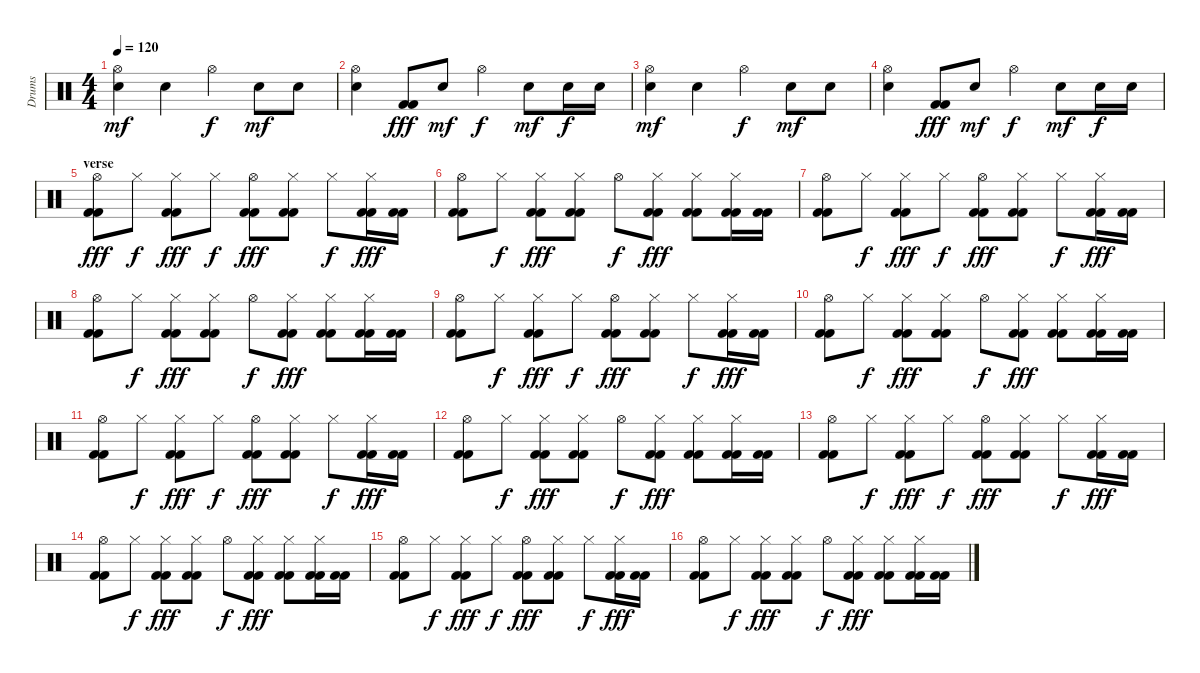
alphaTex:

\track ("Drums" "Drums") {instrument percussion}
\staff {score}
\articulation defaults
\ts (4 4)
\tempo 120
\clef neutral
\ks c
("Electric Snare (hit)" "Hi-Hat (open)").4{dy mf} "Electric Snare (hit)".4 "Hi-Hat (open)".4{dy f} "Electric Snare (hit)".8{dy mf} "Electric Snare (hit)".8 |
("Electric Snare (hit)" "Hi-Hat (open)").4 ("Kick (hit) 2" "Kick (hit) 2").8{dy fff} "Electric Snare (hit)".8{dy mf} "Hi-Hat (open)".4{dy f} "Electric Snare (hit)".8{dy mf} "Electric Snare (hit)".16{dy f} "Electric Snare (hit)".16 |
("Electric Snare (hit)" "Hi-Hat (open)").4{dy mf} "Electric Snare (hit)".4 "Hi-Hat (open)".4{dy f} "Electric Snare (hit)".8{dy mf} "Electric Snare (hit)".8 |
("Electric Snare (hit)" "Hi-Hat (open)").4 ("Kick (hit) 2" "Kick (hit) 2").8{dy fff} "Electric Snare (hit)".8{dy mf} "Hi-Hat (open)".4{dy f} "Electric Snare (hit)".8{dy mf} "Electric Snare (hit)".16{dy f} "Electric Snare (hit)".16 |
\section ("" "verse")
("Hi-Hat (open)" "Kick (hit) 2" "Kick (hit) 2").8{dy fff} "Hi-Hat (closed)".8{dy f} ("Hi-Hat (closed)" "Kick (hit) 2" "Kick (hit) 2").8{dy fff} "Hi-Hat (closed)".8{dy f} ("Hi-Hat (open)" "Kick (hit) 2" "Kick (hit) 2").8{dy fff} ("Hi-Hat (closed)" "Kick (hit) 2" "Kick (hit) 2").8 "Hi-Hat (closed)".8{dy f} ("Hi-Hat (closed)" "Kick (hit) 2" "Kick (hit) 2").16{dy fff} ("Kick (hit) 2" "Kick (hit) 2").16 |
("Hi-Hat (open)" "Kick (hit) 2" "Kick (hit) 2").8 "Hi-Hat (closed)".8{dy f} ("Hi-Hat (closed)" "Kick (hit) 2" "Kick (hit) 2").8{dy fff} ("Hi-Hat (closed)" "Kick (hit) 2" "Kick (hit) 2").8 "Hi-Hat (open)".8{dy f} ("Hi-Hat (closed)" "Kick (hit) 2" "Kick (hit) 2").8{dy fff} ("Hi-Hat (closed)" "Kick (hit) 2" "Kick (hit) 2").8 ("Hi-Hat (closed)" "Kick (hit) 2" "Kick (hit) 2").16 ("Kick (hit) 2" "Kick (hit) 2").16 |
("Hi-Hat (open)" "Kick (hit) 2" "Kick (hit) 2").8 "Hi-Hat (closed)".8{dy f} ("Hi-Hat (closed)" "Kick (hit) 2" "Kick (hit) 2").8{dy fff} "Hi-Hat (closed)".8{dy f} ("Hi-Hat (open)" "Kick (hit) 2" "Kick (hit) 2").8{dy fff} ("Hi-Hat (closed)" "Kick (hit) 2" "Kick (hit) 2").8 "Hi-Hat (closed)".8{dy f} ("Hi-Hat (closed)" "Kick (hit) 2" "Kick (hit) 2").16{dy fff} ("Kick (hit) 2" "Kick (hit) 2").16 |
("Hi-Hat (open)" "Kick (hit) 2" "Kick (hit) 2").8 "Hi-Hat (closed)".8{dy f} ("Hi-Hat (closed)" "Kick (hit) 2" "Kick (hit) 2").8{dy fff} ("Hi-Hat (closed)" "Kick (hit) 2" "Kick (hit) 2").8 "Hi-Hat (open)".8{dy f} ("Hi-Hat (closed)" "Kick (hit) 2" "Kick (hit) 2").8{dy fff} ("Hi-Hat (closed)" "Kick (hit) 2" "Kick (hit) 2").8 ("Hi-Hat (closed)" "Kick (hit) 2" "Kick (hit) 2").16 ("Kick (hit) 2" "Kick (hit) 2").16 |
("Hi-Hat (open)" "Kick (hit) 2" "Kick (hit) 2").8 "Hi-Hat (closed)".8{dy f} ("Hi-Hat (closed)" "Kick (hit) 2" "Kick (hit) 2").8{dy fff} "Hi-Hat (closed)".8{dy f} ("Hi-Hat (open)" "Kick (hit) 2" "Kick (hit) 2").8{dy fff} ("Hi-Hat (closed)" "Kick (hit) 2" "Kick (hit) 2").8 "Hi-Hat (closed)".8{dy f} ("Hi-Hat (closed)" "Kick (hit) 2" "Kick (hit) 2").16{dy fff} ("Kick (hit) 2" "Kick (hit) 2").16 |
("Hi-Hat (open)" "Kick (hit) 2" "Kick (hit) 2").8 "Hi-Hat (closed)".8{dy f} ("Hi-Hat (closed)" "Kick (hit) 2" "Kick (hit) 2").8{dy fff} ("Hi-Hat (closed)" "Kick (hit) 2" "Kick (hit) 2").8 "Hi-Hat (open)".8{dy f} ("Hi-Hat (closed)" "Kick (hit) 2" "Kick (hit) 2").8{dy fff} ("Hi-Hat (closed)" "Kick (hit) 2" "Kick (hit) 2").8 ("Hi-Hat (closed)" "Kick (hit) 2" "Kick (hit) 2").16 ("Kick (hit) 2" "Kick (hit) 2").16 |
("Hi-Hat (open)" "Kick (hit) 2" "Kick (hit) 2").8 "Hi-Hat (closed)".8{dy f} ("Hi-Hat (closed)" "Kick (hit) 2" "Kick (hit) 2").8{dy fff} "Hi-Hat (closed)".8{dy f} ("Hi-Hat (open)" "Kick (hit) 2" "Kick (hit) 2").8{dy fff} ("Hi-Hat (closed)" "Kick (hit) 2" "Kick (hit) 2").8 "Hi-Hat (closed)".8{dy f} ("Hi-Hat (closed)" "Kick (hit) 2" "Kick (hit) 2").16{dy fff} ("Kick (hit) 2" "Kick (hit) 2").16 |
("Hi-Hat (open)" "Kick (hit) 2" "Kick (hit) 2").8 "Hi-Hat (closed)".8{dy f} ("Hi-Hat (closed)" "Kick (hit) 2" "Kick (hit) 2").8{dy fff} ("Hi-Hat (closed)" "Kick (hit) 2" "Kick (hit) 2").8 "Hi-Hat (open)".8{dy f} ("Hi-Hat (closed)" "Kick (hit) 2" "Kick (hit) 2").8{dy fff} ("Hi-Hat (closed)" "Kick (hit) 2" "Kick (hit) 2").8 ("Hi-Hat (closed)" "Kick (hit) 2" "Kick (hit) 2").16 ("Kick (hit) 2" "Kick (hit) 2").16 |
("Hi-Hat (open)" "Kick (hit) 2" "Kick (hit) 2").8 "Hi-Hat (closed)".8{dy f} ("Hi-Hat (closed)" "Kick (hit) 2" "Kick (hit) 2").8{dy fff} "Hi-Hat (closed)".8{dy f} ("Hi-Hat (open)" "Kick (hit) 2" "Kick (hit) 2").8{dy fff} ("Hi-Hat (closed)" "Kick (hit) 2" "Kick (hit) 2").8 "Hi-Hat (closed)".8{dy f} ("Hi-Hat (closed)" "Kick (hit) 2" "Kick (hit) 2").16{dy fff} ("Kick (hit) 2" "Kick (hit) 2").16 |
("Hi-Hat (open)" "Kick (hit) 2" "Kick (hit) 2").8 "Hi-Hat (closed)".8{dy f} ("Hi-Hat (closed)" "Kick (hit) 2" "Kick (hit) 2").8{dy fff} ("Hi-Hat (closed)" "Kick (hit) 2" "Kick (hit) 2").8 "Hi-Hat (open)".8{dy f} ("Hi-Hat (closed)" "Kick (hit) 2" "Kick (hit) 2").8{dy fff} ("Hi-Hat (closed)" "Kick (hit) 2" "Kick (hit) 2").8 ("Hi-Hat (closed)" "Kick (hit) 2" "Kick (hit) 2").16 ("Kick (hit) 2" "Kick (hit) 2").16 |
("Hi-Hat (open)" "Kick (hit) 2" "Kick (hit) 2").8 "Hi-Hat (closed)".8{dy f} ("Hi-Hat (closed)" "Kick (hit) 2" "Kick (hit) 2").8{dy fff} "Hi-Hat (closed)".8{dy f} ("Hi-Hat (open)" "Kick (hit) 2" "Kick (hit) 2").8{dy fff} ("Hi-Hat (closed)" "Kick (hit) 2" "Kick (hit) 2").8 "Hi-Hat (closed)".8{dy f} ("Hi-Hat (closed)" "Kick (hit) 2" "Kick (hit) 2").16{dy fff} ("Kick (hit) 2" "Kick (hit) 2").16 |
("Hi-Hat (open)" "Kick (hit) 2" "Kick (hit) 2").8 "Hi-Hat (closed)".8{dy f} ("Hi-Hat (closed)" "Kick (hit) 2" "Kick (hit) 2").8{dy fff} ("Hi-Hat (closed)" "Kick (hit) 2" "Kick (hit) 2").8 "Hi-Hat (open)".8{dy f} ("Hi-Hat (closed)" "Kick (hit) 2" "Kick (hit) 2").8{dy fff} ("Hi-Hat (closed)" "Kick (hit) 2" "Kick (hit) 2").8 ("Hi-Hat (closed)" "Kick (hit) 2" "Kick (hit) 2").16 ("Kick (hit) 2" "Kick (hit) 2").16
